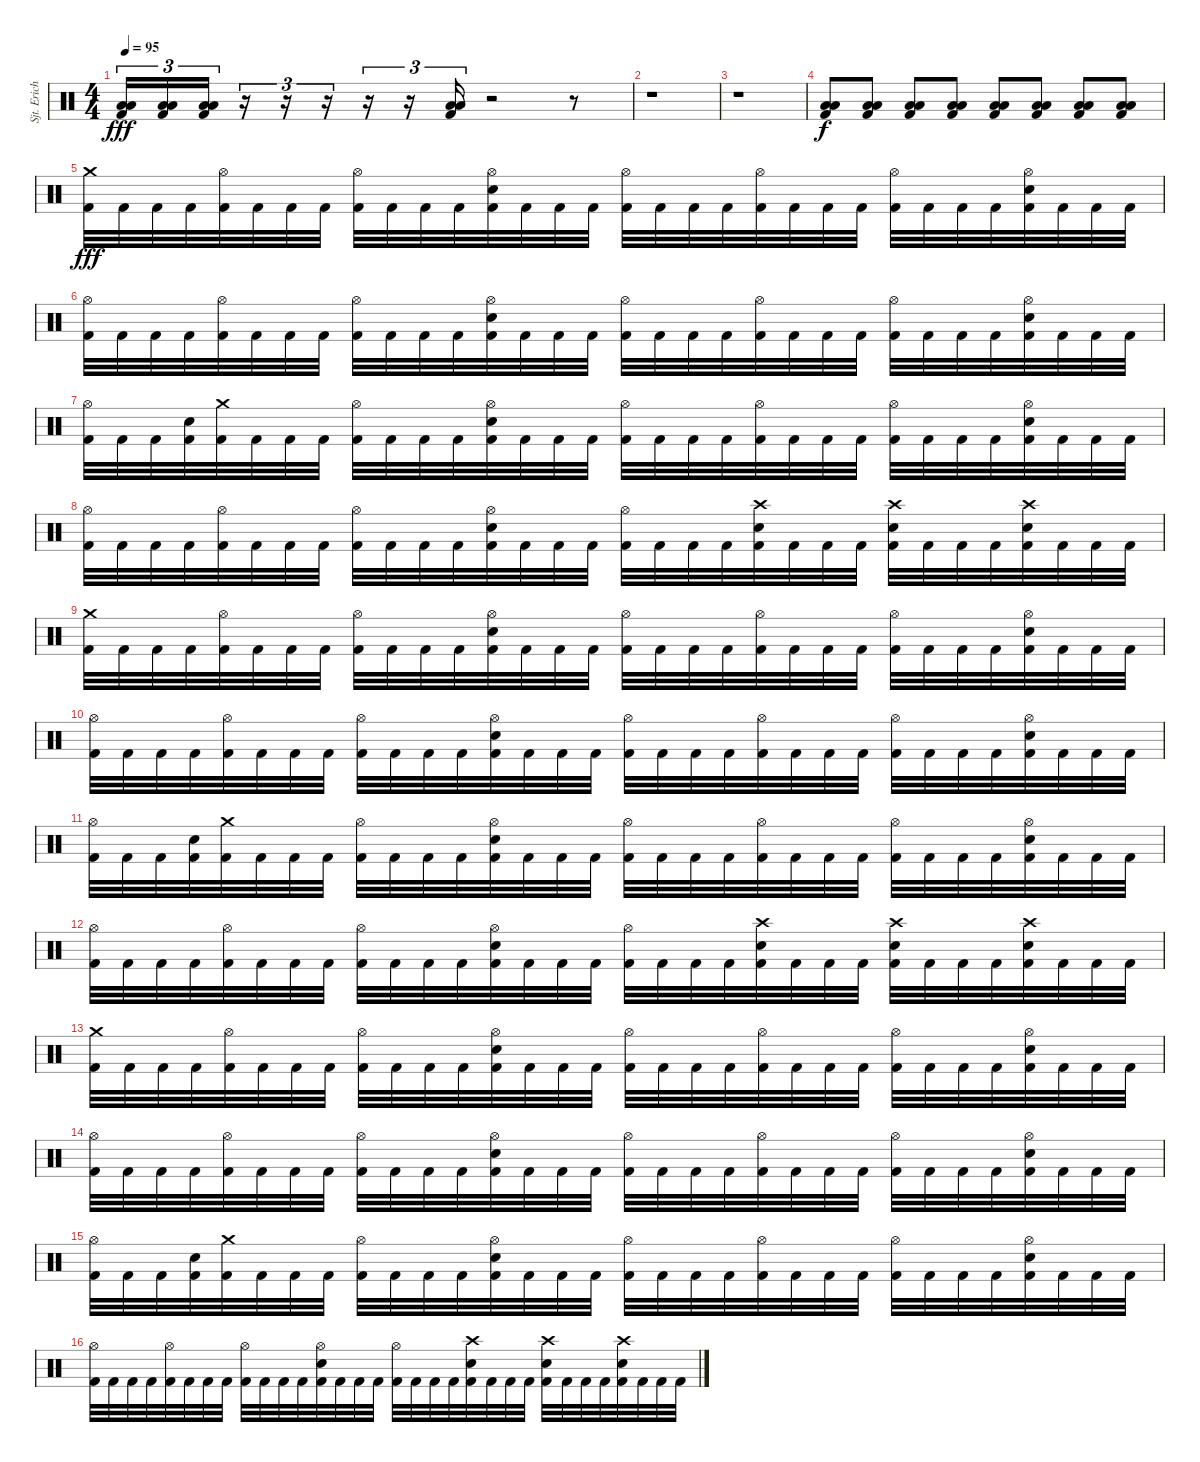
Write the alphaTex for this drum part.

\track ("Sjt. Erichsen" "Sjt. Erich") {instrument percussion}
\staff {score}
\articulation defaults
\ts (4 4)
\tempo 95
\clef neutral
\ks c
("Low Floor Tom (hit)" "Low Tom (hit)" "Kick (hit) 2").16{tu (3 2) dy fff} ("Low Floor Tom (hit)" "Low Tom (hit)" "Kick (hit) 2").16{tu (3 2)} ("Low Floor Tom (hit)" "Low Tom (hit)" "Kick (hit) 2").16{tu (3 2)} r.16{tu (3 2)} r.16{tu (3 2)} r.16{tu (3 2)} r.16{tu (3 2)} r.16{tu (3 2)} ("Low Floor Tom (hit)" "Low Tom (hit)" "Kick (hit) 2").16{tu (3 2)} r.2 r.8 |
r.1 |
r.1 |
("Low Floor Tom (hit)" "Low Tom (hit)" "Kick (hit) 2").8{dy f} ("Low Floor Tom (hit)" "Low Tom (hit)" "Kick (hit) 2").8 ("Low Floor Tom (hit)" "Low Tom (hit)" "Kick (hit) 2").8 ("Low Floor Tom (hit)" "Low Tom (hit)" "Kick (hit) 2").8 ("Low Floor Tom (hit)" "Low Tom (hit)" "Kick (hit) 2").8 ("Low Floor Tom (hit)" "Low Tom (hit)" "Kick (hit) 2").8 ("Low Floor Tom (hit)" "Low Tom (hit)" "Kick (hit) 2").8 ("Low Floor Tom (hit)" "Low Tom (hit)" "Kick (hit) 2").8 |
("Crash medium (hit)" "Kick (hit) 2").32{dy fff} "Kick (hit) 2".32 "Kick (hit) 2".32 "Kick (hit) 2".32 ("Hi-Hat (open)" "Kick (hit) 2").32 "Kick (hit) 2".32 "Kick (hit) 2".32 "Kick (hit) 2".32 ("Hi-Hat (open)" "Kick (hit) 2").32 "Kick (hit) 2".32 "Kick (hit) 2".32 "Kick (hit) 2".32 ("Hi-Hat (open)" "Electric Snare (hit)" "Kick (hit) 2").32 "Kick (hit) 2".32 "Kick (hit) 2".32 "Kick (hit) 2".32 ("Hi-Hat (open)" "Kick (hit) 2").32 "Kick (hit) 2".32 "Kick (hit) 2".32 "Kick (hit) 2".32 ("Hi-Hat (open)" "Kick (hit) 2").32 "Kick (hit) 2".32 "Kick (hit) 2".32 "Kick (hit) 2".32 ("Hi-Hat (open)" "Kick (hit) 2").32 "Kick (hit) 2".32 "Kick (hit) 2".32 "Kick (hit) 2".32 ("Hi-Hat (open)" "Electric Snare (hit)" "Kick (hit) 2").32 "Kick (hit) 2".32 "Kick (hit) 2".32 "Kick (hit) 2".32 |
("Hi-Hat (open)" "Kick (hit) 2").32 "Kick (hit) 2".32 "Kick (hit) 2".32 "Kick (hit) 2".32 ("Hi-Hat (open)" "Kick (hit) 2").32 "Kick (hit) 2".32 "Kick (hit) 2".32 "Kick (hit) 2".32 ("Hi-Hat (open)" "Kick (hit) 2").32 "Kick (hit) 2".32 "Kick (hit) 2".32 "Kick (hit) 2".32 ("Hi-Hat (open)" "Electric Snare (hit)" "Kick (hit) 2").32 "Kick (hit) 2".32 "Kick (hit) 2".32 "Kick (hit) 2".32 ("Hi-Hat (open)" "Kick (hit) 2").32 "Kick (hit) 2".32 "Kick (hit) 2".32 "Kick (hit) 2".32 ("Hi-Hat (open)" "Kick (hit) 2").32 "Kick (hit) 2".32 "Kick (hit) 2".32 "Kick (hit) 2".32 ("Hi-Hat (open)" "Kick (hit) 2").32 "Kick (hit) 2".32 "Kick (hit) 2".32 "Kick (hit) 2".32 ("Hi-Hat (open)" "Electric Snare (hit)" "Kick (hit) 2").32 "Kick (hit) 2".32 "Kick (hit) 2".32 "Kick (hit) 2".32 |
("Hi-Hat (open)" "Kick (hit) 2").32 "Kick (hit) 2".32 "Kick (hit) 2".32 ("Electric Snare (hit)" "Kick (hit) 2").32 ("Crash medium (hit)" "Kick (hit) 2").32 "Kick (hit) 2".32 "Kick (hit) 2".32 "Kick (hit) 2".32 ("Hi-Hat (open)" "Kick (hit) 2").32 "Kick (hit) 2".32 "Kick (hit) 2".32 "Kick (hit) 2".32 ("Hi-Hat (open)" "Electric Snare (hit)" "Kick (hit) 2").32 "Kick (hit) 2".32 "Kick (hit) 2".32 "Kick (hit) 2".32 ("Hi-Hat (open)" "Kick (hit) 2").32 "Kick (hit) 2".32 "Kick (hit) 2".32 "Kick (hit) 2".32 ("Hi-Hat (open)" "Kick (hit) 2").32 "Kick (hit) 2".32 "Kick (hit) 2".32 "Kick (hit) 2".32 ("Hi-Hat (open)" "Kick (hit) 2").32 "Kick (hit) 2".32 "Kick (hit) 2".32 "Kick (hit) 2".32 ("Hi-Hat (open)" "Electric Snare (hit)" "Kick (hit) 2").32 "Kick (hit) 2".32 "Kick (hit) 2".32 "Kick (hit) 2".32 |
("Hi-Hat (open)" "Kick (hit) 2").32 "Kick (hit) 2".32 "Kick (hit) 2".32 "Kick (hit) 2".32 ("Hi-Hat (open)" "Kick (hit) 2").32 "Kick (hit) 2".32 "Kick (hit) 2".32 "Kick (hit) 2".32 ("Hi-Hat (open)" "Kick (hit) 2").32 "Kick (hit) 2".32 "Kick (hit) 2".32 "Kick (hit) 2".32 ("Hi-Hat (open)" "Electric Snare (hit)" "Kick (hit) 2").32 "Kick (hit) 2".32 "Kick (hit) 2".32 "Kick (hit) 2".32 ("Hi-Hat (open)" "Kick (hit) 2").32 "Kick (hit) 2".32 "Kick (hit) 2".32 "Kick (hit) 2".32 ("Crash high (hit)" "Electric Snare (hit)" "Kick (hit) 2").32 "Kick (hit) 2".32 "Kick (hit) 2".32 "Kick (hit) 2".32 ("Crash high (hit)" "Electric Snare (hit)" "Kick (hit) 2").32 "Kick (hit) 2".32 "Kick (hit) 2".32 "Kick (hit) 2".32 ("Crash high (hit)" "Electric Snare (hit)" "Kick (hit) 2").32 "Kick (hit) 2".32 "Kick (hit) 2".32 "Kick (hit) 2".32 |
("Crash medium (hit)" "Kick (hit) 2").32 "Kick (hit) 2".32 "Kick (hit) 2".32 "Kick (hit) 2".32 ("Hi-Hat (open)" "Kick (hit) 2").32 "Kick (hit) 2".32 "Kick (hit) 2".32 "Kick (hit) 2".32 ("Hi-Hat (open)" "Kick (hit) 2").32 "Kick (hit) 2".32 "Kick (hit) 2".32 "Kick (hit) 2".32 ("Hi-Hat (open)" "Electric Snare (hit)" "Kick (hit) 2").32 "Kick (hit) 2".32 "Kick (hit) 2".32 "Kick (hit) 2".32 ("Hi-Hat (open)" "Kick (hit) 2").32 "Kick (hit) 2".32 "Kick (hit) 2".32 "Kick (hit) 2".32 ("Hi-Hat (open)" "Kick (hit) 2").32 "Kick (hit) 2".32 "Kick (hit) 2".32 "Kick (hit) 2".32 ("Hi-Hat (open)" "Kick (hit) 2").32 "Kick (hit) 2".32 "Kick (hit) 2".32 "Kick (hit) 2".32 ("Hi-Hat (open)" "Electric Snare (hit)" "Kick (hit) 2").32 "Kick (hit) 2".32 "Kick (hit) 2".32 "Kick (hit) 2".32 |
("Hi-Hat (open)" "Kick (hit) 2").32 "Kick (hit) 2".32 "Kick (hit) 2".32 "Kick (hit) 2".32 ("Hi-Hat (open)" "Kick (hit) 2").32 "Kick (hit) 2".32 "Kick (hit) 2".32 "Kick (hit) 2".32 ("Hi-Hat (open)" "Kick (hit) 2").32 "Kick (hit) 2".32 "Kick (hit) 2".32 "Kick (hit) 2".32 ("Hi-Hat (open)" "Electric Snare (hit)" "Kick (hit) 2").32 "Kick (hit) 2".32 "Kick (hit) 2".32 "Kick (hit) 2".32 ("Hi-Hat (open)" "Kick (hit) 2").32 "Kick (hit) 2".32 "Kick (hit) 2".32 "Kick (hit) 2".32 ("Hi-Hat (open)" "Kick (hit) 2").32 "Kick (hit) 2".32 "Kick (hit) 2".32 "Kick (hit) 2".32 ("Hi-Hat (open)" "Kick (hit) 2").32 "Kick (hit) 2".32 "Kick (hit) 2".32 "Kick (hit) 2".32 ("Hi-Hat (open)" "Electric Snare (hit)" "Kick (hit) 2").32 "Kick (hit) 2".32 "Kick (hit) 2".32 "Kick (hit) 2".32 |
("Hi-Hat (open)" "Kick (hit) 2").32 "Kick (hit) 2".32 "Kick (hit) 2".32 ("Electric Snare (hit)" "Kick (hit) 2").32 ("Crash medium (hit)" "Kick (hit) 2").32 "Kick (hit) 2".32 "Kick (hit) 2".32 "Kick (hit) 2".32 ("Hi-Hat (open)" "Kick (hit) 2").32 "Kick (hit) 2".32 "Kick (hit) 2".32 "Kick (hit) 2".32 ("Hi-Hat (open)" "Electric Snare (hit)" "Kick (hit) 2").32 "Kick (hit) 2".32 "Kick (hit) 2".32 "Kick (hit) 2".32 ("Hi-Hat (open)" "Kick (hit) 2").32 "Kick (hit) 2".32 "Kick (hit) 2".32 "Kick (hit) 2".32 ("Hi-Hat (open)" "Kick (hit) 2").32 "Kick (hit) 2".32 "Kick (hit) 2".32 "Kick (hit) 2".32 ("Hi-Hat (open)" "Kick (hit) 2").32 "Kick (hit) 2".32 "Kick (hit) 2".32 "Kick (hit) 2".32 ("Hi-Hat (open)" "Electric Snare (hit)" "Kick (hit) 2").32 "Kick (hit) 2".32 "Kick (hit) 2".32 "Kick (hit) 2".32 |
("Hi-Hat (open)" "Kick (hit) 2").32 "Kick (hit) 2".32 "Kick (hit) 2".32 "Kick (hit) 2".32 ("Hi-Hat (open)" "Kick (hit) 2").32 "Kick (hit) 2".32 "Kick (hit) 2".32 "Kick (hit) 2".32 ("Hi-Hat (open)" "Kick (hit) 2").32 "Kick (hit) 2".32 "Kick (hit) 2".32 "Kick (hit) 2".32 ("Hi-Hat (open)" "Electric Snare (hit)" "Kick (hit) 2").32 "Kick (hit) 2".32 "Kick (hit) 2".32 "Kick (hit) 2".32 ("Hi-Hat (open)" "Kick (hit) 2").32 "Kick (hit) 2".32 "Kick (hit) 2".32 "Kick (hit) 2".32 ("Crash high (hit)" "Electric Snare (hit)" "Kick (hit) 2").32 "Kick (hit) 2".32 "Kick (hit) 2".32 "Kick (hit) 2".32 ("Crash high (hit)" "Electric Snare (hit)" "Kick (hit) 2").32 "Kick (hit) 2".32 "Kick (hit) 2".32 "Kick (hit) 2".32 ("Crash high (hit)" "Electric Snare (hit)" "Kick (hit) 2").32 "Kick (hit) 2".32 "Kick (hit) 2".32 "Kick (hit) 2".32 |
("Crash medium (hit)" "Kick (hit) 2").32 "Kick (hit) 2".32 "Kick (hit) 2".32 "Kick (hit) 2".32 ("Hi-Hat (open)" "Kick (hit) 2").32 "Kick (hit) 2".32 "Kick (hit) 2".32 "Kick (hit) 2".32 ("Hi-Hat (open)" "Kick (hit) 2").32 "Kick (hit) 2".32 "Kick (hit) 2".32 "Kick (hit) 2".32 ("Hi-Hat (open)" "Electric Snare (hit)" "Kick (hit) 2").32 "Kick (hit) 2".32 "Kick (hit) 2".32 "Kick (hit) 2".32 ("Hi-Hat (open)" "Kick (hit) 2").32 "Kick (hit) 2".32 "Kick (hit) 2".32 "Kick (hit) 2".32 ("Hi-Hat (open)" "Kick (hit) 2").32 "Kick (hit) 2".32 "Kick (hit) 2".32 "Kick (hit) 2".32 ("Hi-Hat (open)" "Kick (hit) 2").32 "Kick (hit) 2".32 "Kick (hit) 2".32 "Kick (hit) 2".32 ("Hi-Hat (open)" "Electric Snare (hit)" "Kick (hit) 2").32 "Kick (hit) 2".32 "Kick (hit) 2".32 "Kick (hit) 2".32 |
("Hi-Hat (open)" "Kick (hit) 2").32 "Kick (hit) 2".32 "Kick (hit) 2".32 "Kick (hit) 2".32 ("Hi-Hat (open)" "Kick (hit) 2").32 "Kick (hit) 2".32 "Kick (hit) 2".32 "Kick (hit) 2".32 ("Hi-Hat (open)" "Kick (hit) 2").32 "Kick (hit) 2".32 "Kick (hit) 2".32 "Kick (hit) 2".32 ("Hi-Hat (open)" "Electric Snare (hit)" "Kick (hit) 2").32 "Kick (hit) 2".32 "Kick (hit) 2".32 "Kick (hit) 2".32 ("Hi-Hat (open)" "Kick (hit) 2").32 "Kick (hit) 2".32 "Kick (hit) 2".32 "Kick (hit) 2".32 ("Hi-Hat (open)" "Kick (hit) 2").32 "Kick (hit) 2".32 "Kick (hit) 2".32 "Kick (hit) 2".32 ("Hi-Hat (open)" "Kick (hit) 2").32 "Kick (hit) 2".32 "Kick (hit) 2".32 "Kick (hit) 2".32 ("Hi-Hat (open)" "Electric Snare (hit)" "Kick (hit) 2").32 "Kick (hit) 2".32 "Kick (hit) 2".32 "Kick (hit) 2".32 |
("Hi-Hat (open)" "Kick (hit) 2").32 "Kick (hit) 2".32 "Kick (hit) 2".32 ("Electric Snare (hit)" "Kick (hit) 2").32 ("Crash medium (hit)" "Kick (hit) 2").32 "Kick (hit) 2".32 "Kick (hit) 2".32 "Kick (hit) 2".32 ("Hi-Hat (open)" "Kick (hit) 2").32 "Kick (hit) 2".32 "Kick (hit) 2".32 "Kick (hit) 2".32 ("Hi-Hat (open)" "Electric Snare (hit)" "Kick (hit) 2").32 "Kick (hit) 2".32 "Kick (hit) 2".32 "Kick (hit) 2".32 ("Hi-Hat (open)" "Kick (hit) 2").32 "Kick (hit) 2".32 "Kick (hit) 2".32 "Kick (hit) 2".32 ("Hi-Hat (open)" "Kick (hit) 2").32 "Kick (hit) 2".32 "Kick (hit) 2".32 "Kick (hit) 2".32 ("Hi-Hat (open)" "Kick (hit) 2").32 "Kick (hit) 2".32 "Kick (hit) 2".32 "Kick (hit) 2".32 ("Hi-Hat (open)" "Electric Snare (hit)" "Kick (hit) 2").32 "Kick (hit) 2".32 "Kick (hit) 2".32 "Kick (hit) 2".32 |
("Hi-Hat (open)" "Kick (hit) 2").32 "Kick (hit) 2".32 "Kick (hit) 2".32 "Kick (hit) 2".32 ("Hi-Hat (open)" "Kick (hit) 2").32 "Kick (hit) 2".32 "Kick (hit) 2".32 "Kick (hit) 2".32 ("Hi-Hat (open)" "Kick (hit) 2").32 "Kick (hit) 2".32 "Kick (hit) 2".32 "Kick (hit) 2".32 ("Hi-Hat (open)" "Electric Snare (hit)" "Kick (hit) 2").32 "Kick (hit) 2".32 "Kick (hit) 2".32 "Kick (hit) 2".32 ("Hi-Hat (open)" "Kick (hit) 2").32 "Kick (hit) 2".32 "Kick (hit) 2".32 "Kick (hit) 2".32 ("Crash high (hit)" "Electric Snare (hit)" "Kick (hit) 2").32 "Kick (hit) 2".32 "Kick (hit) 2".32 "Kick (hit) 2".32 ("Crash high (hit)" "Electric Snare (hit)" "Kick (hit) 2").32 "Kick (hit) 2".32 "Kick (hit) 2".32 "Kick (hit) 2".32 ("Crash high (hit)" "Electric Snare (hit)" "Kick (hit) 2").32 "Kick (hit) 2".32 "Kick (hit) 2".32 "Kick (hit) 2".32
